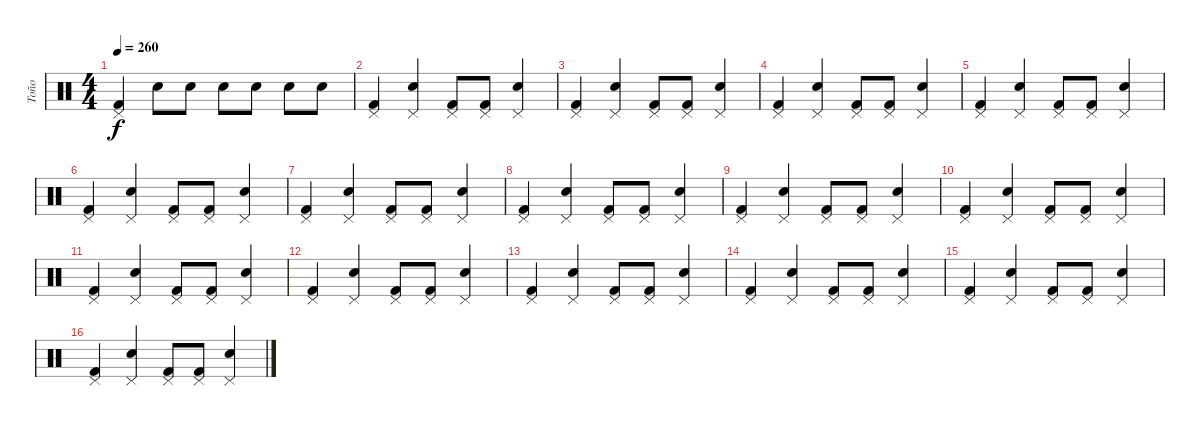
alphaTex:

\track ("Toño" "Toño") {instrument percussion}
\staff {score}
\articulation defaults
\ts (4 4)
\tempo 260
\clef neutral
\ks c
("Pedal Hi-Hat (hit)" "Kick (hit) 2").4{dy f} "Electric Snare (hit)".8 "Electric Snare (hit)".8 "Electric Snare (hit)".8 "Electric Snare (hit)".8 "Electric Snare (hit)".8 "Electric Snare (hit)".8 |
("Pedal Hi-Hat (hit)" "Kick (hit) 2").4 ("Pedal Hi-Hat (hit)" "Electric Snare (hit)").4 ("Pedal Hi-Hat (hit)" "Kick (hit) 2").8 ("Pedal Hi-Hat (hit)" "Kick (hit) 2").8 ("Pedal Hi-Hat (hit)" "Electric Snare (hit)").4 |
("Pedal Hi-Hat (hit)" "Kick (hit) 2").4 ("Pedal Hi-Hat (hit)" "Electric Snare (hit)").4 ("Pedal Hi-Hat (hit)" "Kick (hit) 2").8 ("Pedal Hi-Hat (hit)" "Kick (hit) 2").8 ("Pedal Hi-Hat (hit)" "Electric Snare (hit)").4 |
("Pedal Hi-Hat (hit)" "Kick (hit) 2").4 ("Pedal Hi-Hat (hit)" "Electric Snare (hit)").4 ("Pedal Hi-Hat (hit)" "Kick (hit) 2").8 ("Pedal Hi-Hat (hit)" "Kick (hit) 2").8 ("Pedal Hi-Hat (hit)" "Electric Snare (hit)").4 |
("Pedal Hi-Hat (hit)" "Kick (hit) 2").4 ("Pedal Hi-Hat (hit)" "Electric Snare (hit)").4 ("Pedal Hi-Hat (hit)" "Kick (hit) 2").8 ("Pedal Hi-Hat (hit)" "Kick (hit) 2").8 ("Pedal Hi-Hat (hit)" "Electric Snare (hit)").4 |
("Pedal Hi-Hat (hit)" "Kick (hit) 2").4 ("Pedal Hi-Hat (hit)" "Electric Snare (hit)").4 ("Pedal Hi-Hat (hit)" "Kick (hit) 2").8 ("Pedal Hi-Hat (hit)" "Kick (hit) 2").8 ("Pedal Hi-Hat (hit)" "Electric Snare (hit)").4 |
("Pedal Hi-Hat (hit)" "Kick (hit) 2").4 ("Pedal Hi-Hat (hit)" "Electric Snare (hit)").4 ("Pedal Hi-Hat (hit)" "Kick (hit) 2").8 ("Pedal Hi-Hat (hit)" "Kick (hit) 2").8 ("Pedal Hi-Hat (hit)" "Electric Snare (hit)").4 |
("Pedal Hi-Hat (hit)" "Kick (hit) 2").4 ("Pedal Hi-Hat (hit)" "Electric Snare (hit)").4 ("Pedal Hi-Hat (hit)" "Kick (hit) 2").8 ("Pedal Hi-Hat (hit)" "Kick (hit) 2").8 ("Pedal Hi-Hat (hit)" "Electric Snare (hit)").4 |
("Pedal Hi-Hat (hit)" "Kick (hit) 2").4 ("Pedal Hi-Hat (hit)" "Electric Snare (hit)").4 ("Pedal Hi-Hat (hit)" "Kick (hit) 2").8 ("Pedal Hi-Hat (hit)" "Kick (hit) 2").8 ("Pedal Hi-Hat (hit)" "Electric Snare (hit)").4 |
("Pedal Hi-Hat (hit)" "Kick (hit) 2").4 ("Pedal Hi-Hat (hit)" "Electric Snare (hit)").4 ("Pedal Hi-Hat (hit)" "Kick (hit) 2").8 ("Pedal Hi-Hat (hit)" "Kick (hit) 2").8 ("Pedal Hi-Hat (hit)" "Electric Snare (hit)").4 |
("Pedal Hi-Hat (hit)" "Kick (hit) 2").4 ("Pedal Hi-Hat (hit)" "Electric Snare (hit)").4 ("Pedal Hi-Hat (hit)" "Kick (hit) 2").8 ("Pedal Hi-Hat (hit)" "Kick (hit) 2").8 ("Pedal Hi-Hat (hit)" "Electric Snare (hit)").4 |
("Pedal Hi-Hat (hit)" "Kick (hit) 2").4 ("Pedal Hi-Hat (hit)" "Electric Snare (hit)").4 ("Pedal Hi-Hat (hit)" "Kick (hit) 2").8 ("Pedal Hi-Hat (hit)" "Kick (hit) 2").8 ("Pedal Hi-Hat (hit)" "Electric Snare (hit)").4 |
("Pedal Hi-Hat (hit)" "Kick (hit) 2").4 ("Pedal Hi-Hat (hit)" "Electric Snare (hit)").4 ("Pedal Hi-Hat (hit)" "Kick (hit) 2").8 ("Pedal Hi-Hat (hit)" "Kick (hit) 2").8 ("Pedal Hi-Hat (hit)" "Electric Snare (hit)").4 |
("Pedal Hi-Hat (hit)" "Kick (hit) 2").4 ("Pedal Hi-Hat (hit)" "Electric Snare (hit)").4 ("Pedal Hi-Hat (hit)" "Kick (hit) 2").8 ("Pedal Hi-Hat (hit)" "Kick (hit) 2").8 ("Pedal Hi-Hat (hit)" "Electric Snare (hit)").4 |
("Pedal Hi-Hat (hit)" "Kick (hit) 2").4 ("Pedal Hi-Hat (hit)" "Electric Snare (hit)").4 ("Pedal Hi-Hat (hit)" "Kick (hit) 2").8 ("Pedal Hi-Hat (hit)" "Kick (hit) 2").8 ("Pedal Hi-Hat (hit)" "Electric Snare (hit)").4 |
("Pedal Hi-Hat (hit)" "Kick (hit) 2").4 ("Pedal Hi-Hat (hit)" "Electric Snare (hit)").4 ("Pedal Hi-Hat (hit)" "Kick (hit) 2").8 ("Pedal Hi-Hat (hit)" "Kick (hit) 2").8 ("Pedal Hi-Hat (hit)" "Electric Snare (hit)").4
